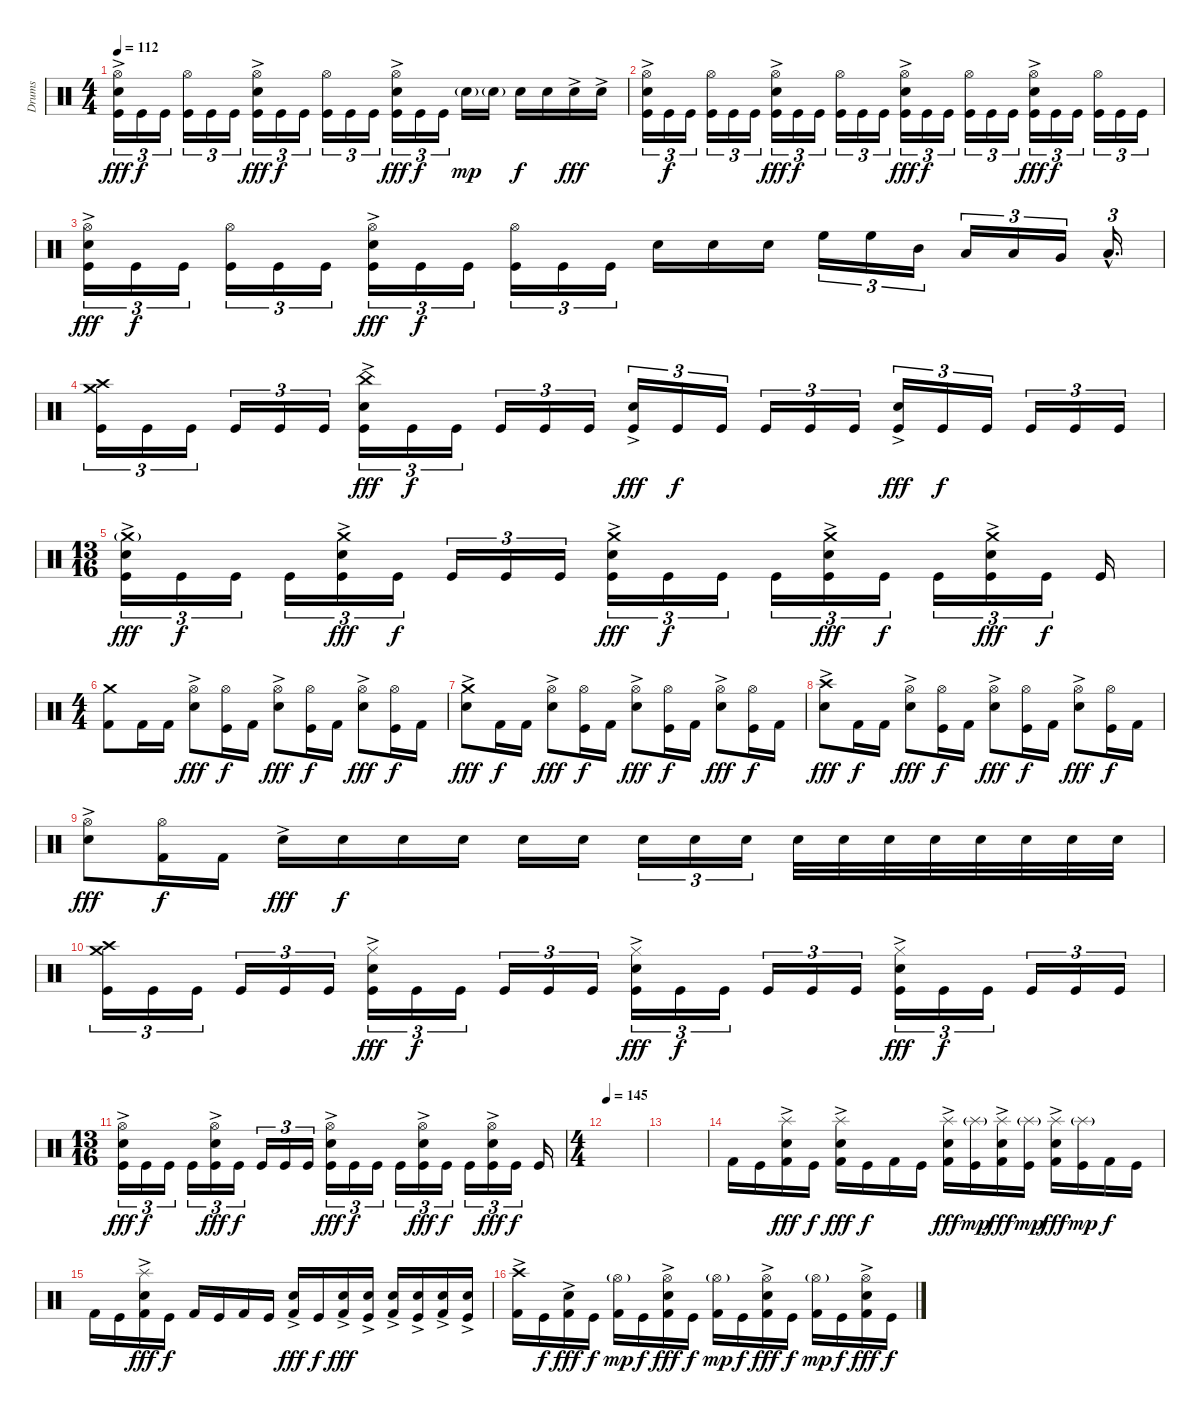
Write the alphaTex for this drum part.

\track ("Drums" "Drums") {instrument percussion}
\staff {score}
\articulation defaults
\ts (4 4)
\tempo 112
\clef neutral
\ks c
("Hi-Hat (open)" "Electric Snare (hit)"{ac} "Kick (hit)").16{tu (3 2) dy fff} "Kick (hit)".16{tu (3 2) dy f} "Kick (hit)".16{tu (3 2)} ("Hi-Hat (open)" "Kick (hit)").16{tu (3 2)} "Kick (hit)".16{tu (3 2)} "Kick (hit)".16{tu (3 2)} ("Hi-Hat (open)" "Electric Snare (hit)"{ac} "Kick (hit)").16{tu (3 2) dy fff} "Kick (hit)".16{tu (3 2) dy f} "Kick (hit)".16{tu (3 2)} ("Hi-Hat (open)" "Kick (hit)").16{tu (3 2)} "Kick (hit)".16{tu (3 2)} "Kick (hit)".16{tu (3 2)} ("Hi-Hat (open)" "Electric Snare (hit)"{ac} "Kick (hit)").16{tu (3 2) dy fff} "Kick (hit)".16{tu (3 2) dy f} "Kick (hit)".16{tu (3 2)} "Electric Snare (hit)"{g}.16{dy mp} "Electric Snare (hit)"{g}.16 "Electric Snare (hit)".16{dy f} "Electric Snare (hit)".16 "Electric Snare (hit)"{ac}.16{dy fff} "Electric Snare (hit)"{ac}.16 |
("Hi-Hat (open)" "Electric Snare (hit)"{ac} "Kick (hit)").16{tu (3 2)} "Kick (hit)".16{tu (3 2) dy f} "Kick (hit)".16{tu (3 2)} ("Hi-Hat (open)" "Kick (hit)").16{tu (3 2)} "Kick (hit)".16{tu (3 2)} "Kick (hit)".16{tu (3 2)} ("Hi-Hat (open)" "Electric Snare (hit)"{ac} "Kick (hit)").16{tu (3 2) dy fff} "Kick (hit)".16{tu (3 2) dy f} "Kick (hit)".16{tu (3 2)} ("Hi-Hat (open)" "Kick (hit)").16{tu (3 2)} "Kick (hit)".16{tu (3 2)} "Kick (hit)".16{tu (3 2)} ("Hi-Hat (open)" "Electric Snare (hit)"{ac} "Kick (hit)").16{tu (3 2) dy fff} "Kick (hit)".16{tu (3 2) dy f} "Kick (hit)".16{tu (3 2)} ("Hi-Hat (open)" "Kick (hit)").16{tu (3 2)} "Kick (hit)".16{tu (3 2)} "Kick (hit)".16{tu (3 2)} ("Hi-Hat (open)" "Electric Snare (hit)"{ac} "Kick (hit)").16{tu (3 2) dy fff} "Kick (hit)".16{tu (3 2) dy f} "Kick (hit)".16{tu (3 2)} ("Hi-Hat (open)" "Kick (hit)").16{tu (3 2)} "Kick (hit)".16{tu (3 2)} "Kick (hit)".16{tu (3 2)} |
("Hi-Hat (open)" "Electric Snare (hit)"{ac} "Kick (hit)").16{tu (3 2) dy fff} "Kick (hit)".16{tu (3 2) dy f} "Kick (hit)".16{tu (3 2)} ("Hi-Hat (open)" "Kick (hit)").16{tu (3 2)} "Kick (hit)".16{tu (3 2)} "Kick (hit)".16{tu (3 2)} ("Hi-Hat (open)" "Electric Snare (hit)"{ac} "Kick (hit)").16{tu (3 2) dy fff} "Kick (hit)".16{tu (3 2) dy f} "Kick (hit)".16{tu (3 2)} ("Hi-Hat (open)" "Kick (hit)").16{tu (3 2)} "Kick (hit)".16{tu (3 2)} "Kick (hit)".16{tu (3 2)} "Electric Snare (hit)".16 "Electric Snare (hit)".16 "Electric Snare (hit)".16 "High Floor Tom (hit)".16{tu (3 2)} "High Floor Tom (hit)".16{tu (3 2)} "Mid Tom (hit)".16{tu (3 2)} "Low Tom (hit)".16{tu (3 2)} "Low Floor Tom (hit)".16{tu (3 2)} "Very Low Tom (hit)".16{tu (3 2)} "Low Tom (hit)"{hac}.16{d tu (3 2)} |
("Crash medium (hit)" "Crash high (hit)" "Kick (hit)").16{tu (3 2)} "Kick (hit)".16{tu (3 2)} "Kick (hit)".16{tu (3 2)} "Kick (hit)".16{tu (3 2)} "Kick (hit)".16{tu (3 2)} "Kick (hit)".16{tu (3 2)} ("China (hit)" "Electric Snare (hit)"{ac} "Kick (hit)").16{tu (3 2) dy fff} "Kick (hit)".16{tu (3 2) dy f} "Kick (hit)".16{tu (3 2)} "Kick (hit)".16{tu (3 2)} "Kick (hit)".16{tu (3 2)} "Kick (hit)".16{tu (3 2)} ("Electric Snare (hit)"{ac} "Kick (hit)").16{tu (3 2) dy fff} "Kick (hit)".16{tu (3 2) dy f} "Kick (hit)".16{tu (3 2)} "Kick (hit)".16{tu (3 2)} "Kick (hit)".16{tu (3 2)} "Kick (hit)".16{tu (3 2)} ("Electric Snare (hit)"{ac} "Kick (hit)").16{tu (3 2) dy fff} "Kick (hit)".16{tu (3 2) dy f} "Kick (hit)".16{tu (3 2)} "Kick (hit)".16{tu (3 2)} "Kick (hit)".16{tu (3 2)} "Kick (hit)".16{tu (3 2)} |
\ts (13 16)
("Crash medium (hit)"{g} "Electric Snare (hit)"{ac} "Kick (hit)").16{tu (3 2) dy fff} "Kick (hit)".16{tu (3 2) dy f} "Kick (hit)".16{tu (3 2)} "Kick (hit)".16{tu (3 2)} ("Crash medium (hit)" "Electric Snare (hit)"{ac} "Kick (hit)").16{tu (3 2) dy fff} "Kick (hit)".16{tu (3 2) dy f} "Kick (hit)".16{tu (3 2)} "Kick (hit)".16{tu (3 2)} "Kick (hit)".16{tu (3 2)} ("Crash medium (hit)" "Electric Snare (hit)"{ac} "Kick (hit)").16{tu (3 2) dy fff} "Kick (hit)".16{tu (3 2) dy f} "Kick (hit)".16{tu (3 2)} "Kick (hit)".16{tu (3 2)} ("Crash medium (hit)" "Electric Snare (hit)"{ac} "Kick (hit)").16{tu (3 2) dy fff} "Kick (hit)".16{tu (3 2) dy f} "Kick (hit)".16{tu (3 2)} ("Crash medium (hit)"{ac} "Electric Snare (hit)"{ac} "Kick (hit)").16{tu (3 2) dy fff} "Kick (hit)".16{tu (3 2) dy f} "Kick (hit)".16 |
\ts (4 4)
("Crash medium (hit)" "Kick (hit) 2").8 "Kick (hit) 2".16 "Kick (hit) 2".16 ("Hi-Hat (open)" "Electric Snare (hit)"{ac}).8{dy fff} ("Hi-Hat (open)" "Kick (hit)").16{dy f} "Kick (hit) 2".16 ("Hi-Hat (open)" "Electric Snare (hit)"{ac}).8{dy fff} ("Hi-Hat (open)" "Kick (hit)").16{dy f} "Kick (hit) 2".16 ("Hi-Hat (open)" "Electric Snare (hit)"{ac}).8{dy fff} ("Hi-Hat (open)" "Kick (hit)").16{dy f} "Kick (hit) 2".16 |
("Crash medium (hit)" "Electric Snare (hit)"{ac}).8{dy fff} "Kick (hit) 2".16{dy f} "Kick (hit) 2".16 ("Hi-Hat (open)" "Electric Snare (hit)"{ac}).8{dy fff} ("Hi-Hat (open)" "Kick (hit)").16{dy f} "Kick (hit) 2".16 ("Hi-Hat (open)" "Electric Snare (hit)"{ac}).8{dy fff} ("Hi-Hat (open)" "Kick (hit)").16{dy f} "Kick (hit) 2".16 ("Hi-Hat (open)" "Electric Snare (hit)"{ac}).8{dy fff} ("Hi-Hat (open)" "Kick (hit)").16{dy f} "Kick (hit) 2".16 |
("Crash high (hit)" "Electric Snare (hit)"{ac}).8{dy fff} "Kick (hit) 2".16{dy f} "Kick (hit) 2".16 ("Hi-Hat (open)" "Electric Snare (hit)"{ac}).8{dy fff} ("Hi-Hat (open)" "Kick (hit)").16{dy f} "Kick (hit) 2".16 ("Hi-Hat (open)" "Electric Snare (hit)"{ac}).8{dy fff} ("Hi-Hat (open)" "Kick (hit)").16{dy f} "Kick (hit) 2".16 ("Hi-Hat (open)" "Electric Snare (hit)"{ac}).8{dy fff} ("Hi-Hat (open)" "Kick (hit)").16{dy f} "Kick (hit) 2".16 |
("Hi-Hat (open)" "Electric Snare (hit)"{ac}).8{dy fff} ("Hi-Hat (open)" "Kick (hit) 2").16{dy f} "Kick (hit) 2".16 "Electric Snare (hit)"{ac}.16{dy fff} "Electric Snare (hit)".16{dy f} "Electric Snare (hit)".16 "Electric Snare (hit)".16 "Electric Snare (hit)".16 "Electric Snare (hit)".16 "Electric Snare (hit)".16{tu (3 2)} "Electric Snare (hit)".16{tu (3 2)} "Electric Snare (hit)".16{tu (3 2)} "Electric Snare (hit)".32 "Electric Snare (hit)".32 "Electric Snare (hit)".32 "Electric Snare (hit)".32 "Electric Snare (hit)".32 "Electric Snare (hit)".32 "Electric Snare (hit)".32 "Electric Snare (hit)".32 |
("Crash medium (hit)" "Crash high (hit)" "Kick (hit)").16{tu (3 2)} "Kick (hit)".16{tu (3 2)} "Kick (hit)".16{tu (3 2)} "Kick (hit)".16{tu (3 2)} "Kick (hit)".16{tu (3 2)} "Kick (hit)".16{tu (3 2)} ("Hi-Hat (closed)" "Electric Snare (hit)"{ac} "Kick (hit)").16{tu (3 2) dy fff} "Kick (hit)".16{tu (3 2) dy f} "Kick (hit)".16{tu (3 2)} "Kick (hit)".16{tu (3 2)} "Kick (hit)".16{tu (3 2)} "Kick (hit)".16{tu (3 2)} ("Hi-Hat (closed)" "Electric Snare (hit)"{ac} "Kick (hit)").16{tu (3 2) dy fff} "Kick (hit)".16{tu (3 2) dy f} "Kick (hit)".16{tu (3 2)} "Kick (hit)".16{tu (3 2)} "Kick (hit)".16{tu (3 2)} "Kick (hit)".16{tu (3 2)} ("Hi-Hat (closed)" "Electric Snare (hit)"{ac} "Kick (hit)").16{tu (3 2) dy fff} "Kick (hit)".16{tu (3 2) dy f} "Kick (hit)".16{tu (3 2)} "Kick (hit)".16{tu (3 2)} "Kick (hit)".16{tu (3 2)} "Kick (hit)".16{tu (3 2)} |
\ts (13 16)
("Hi-Hat (open)" "Electric Snare (hit)"{ac} "Kick (hit)").16{tu (3 2) dy fff} "Kick (hit)".16{tu (3 2) dy f} "Kick (hit)".16{tu (3 2)} "Kick (hit)".16{tu (3 2)} ("Hi-Hat (open)" "Electric Snare (hit)"{ac} "Kick (hit)").16{tu (3 2) dy fff} "Kick (hit)".16{tu (3 2) dy f} "Kick (hit)".16{tu (3 2)} "Kick (hit)".16{tu (3 2)} "Kick (hit)".16{tu (3 2)} ("Hi-Hat (open)" "Electric Snare (hit)"{ac} "Kick (hit)").16{tu (3 2) dy fff} "Kick (hit)".16{tu (3 2) dy f} "Kick (hit)".16{tu (3 2)} "Kick (hit)".16{tu (3 2)} ("Hi-Hat (open)" "Electric Snare (hit)"{ac} "Kick (hit)").16{tu (3 2) dy fff} "Kick (hit)".16{tu (3 2) dy f} "Kick (hit)".16{tu (3 2)} ("Hi-Hat (open)" "Electric Snare (hit)"{ac} "Kick (hit)").16{tu (3 2) dy fff} "Kick (hit)".16{tu (3 2) dy f} "Kick (hit)".16 |
\ts (4 4)
\tempo 145
|
|
"Kick (hit) 2".16 "Kick (hit)".16 ("Splash (hit)" "Electric Snare (hit)"{ac} "Kick (hit) 2").16{dy fff} "Kick (hit)".16{dy f} ("Splash (hit)" "Electric Snare (hit)"{ac} "Kick (hit) 2").16{dy fff} "Kick (hit)".16{dy f} "Kick (hit) 2".16 "Kick (hit)".16 ("Splash (hit)" "Electric Snare (hit)"{ac} "Kick (hit) 2").16{dy fff} ("Splash (hit)"{g} "Kick (hit)").16{dy mp} ("Splash (hit)" "Electric Snare (hit)"{ac} "Kick (hit) 2").16{dy fff} ("Splash (hit)"{g} "Kick (hit)").16{dy mp} ("Splash (hit)" "Electric Snare (hit)"{ac} "Kick (hit) 2").16{dy fff} ("Splash (hit)"{g} "Kick (hit)").16{dy mp} "Kick (hit) 2".16{dy f} "Kick (hit)".16 |
"Kick (hit) 2".16 "Kick (hit)".16 ("Splash (hit)" "Electric Snare (hit)"{ac} "Kick (hit) 2").16{dy fff} "Kick (hit)".16{dy f} "Kick (hit) 2".16 "Kick (hit)".16 "Kick (hit) 2".16 "Kick (hit)".16 ("Electric Snare (hit)"{ac} "Kick (hit) 2").16{dy fff} "Kick (hit)".16{dy f} ("Electric Snare (hit)"{ac} "Kick (hit) 2").16{dy fff} ("Electric Snare (hit)"{ac} "Kick (hit)").16 ("Electric Snare (hit)"{ac} "Kick (hit) 2").16 ("Electric Snare (hit)"{ac} "Kick (hit)").16 ("Electric Snare (hit)"{ac} "Kick (hit) 2").16 ("Electric Snare (hit)"{ac} "Kick (hit)").16 |
("Crash high (hit)"{ac} "Kick (hit) 2").16 "Kick (hit)".16{dy f} ("Electric Snare (hit)"{ac} "Kick (hit) 2").16{dy fff} "Kick (hit)".16{dy f} ("Hi-Hat (open)"{g} "Kick (hit) 2").16{dy mp} "Kick (hit)".16{dy f} ("Hi-Hat (open)" "Electric Snare (hit)"{ac} "Kick (hit) 2").16{dy fff} "Kick (hit)".16{dy f} ("Hi-Hat (open)"{g} "Kick (hit) 2").16{dy mp} "Kick (hit)".16{dy f} ("Hi-Hat (open)" "Electric Snare (hit)"{ac} "Kick (hit) 2").16{dy fff} "Kick (hit)".16{dy f} ("Hi-Hat (open)"{g} "Kick (hit) 2").16{dy mp} "Kick (hit)".16{dy f} ("Hi-Hat (open)" "Electric Snare (hit)"{ac} "Kick (hit) 2").16{dy fff} "Kick (hit)".16{dy f}
